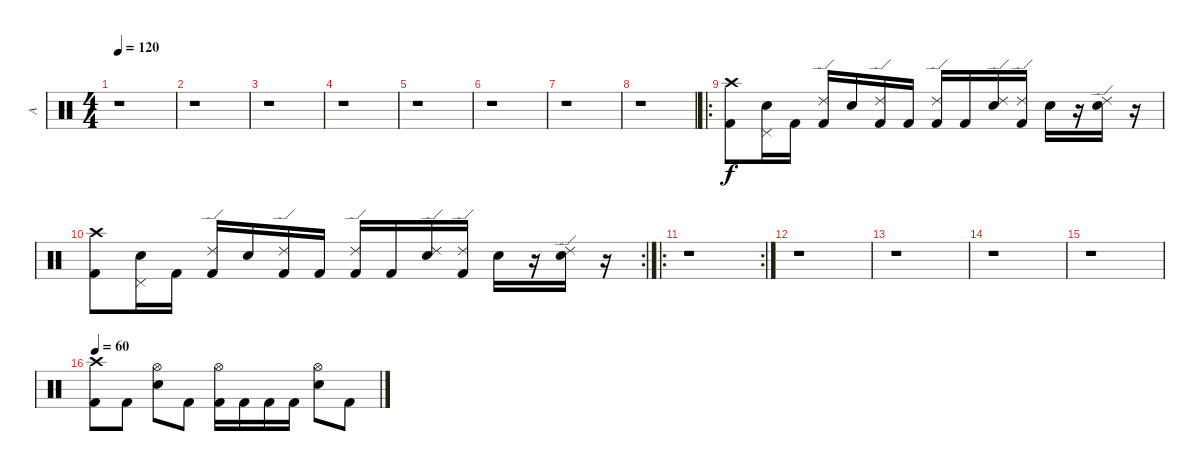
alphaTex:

\track ("A" "A") {instrument percussion}
\staff {score}
\articulation defaults
\ts (4 4)
\tempo 120
\clef neutral
\ks c
r.1{dy f} |
r.1 |
r.1 |
r.1 |
r.1 |
r.1 |
r.1 |
r.1 |
\ro
("Crash high (hit)" "Kick (hit) 2").8 ("Pedal Hi-Hat (hit)" "Electric Snare (hit)").16 "Kick (hit) 2".16 ("Ride (edge) 2" "Kick (hit) 2").16 "Electric Snare (hit)".16 ("Ride (edge) 2" "Kick (hit) 2").16 "Kick (hit) 2".16 ("Ride (edge) 2" "Kick (hit) 2").16 "Kick (hit) 2".16 ("Ride (edge) 2" "Electric Snare (hit)").16 ("Ride (edge) 2" "Kick (hit) 2").16 "Electric Snare (hit)".16 r.16 ("Ride (edge) 2" "Electric Snare (hit)").16 r.16 |
\rc 2
("Crash high (hit)" "Kick (hit) 2").8 ("Pedal Hi-Hat (hit)" "Electric Snare (hit)").16 "Kick (hit) 2".16 ("Ride (edge) 2" "Kick (hit) 2").16 "Electric Snare (hit)".16 ("Ride (edge) 2" "Kick (hit) 2").16 "Kick (hit) 2".16 ("Ride (edge) 2" "Kick (hit) 2").16 "Kick (hit) 2".16 ("Ride (edge) 2" "Electric Snare (hit)").16 ("Ride (edge) 2" "Kick (hit) 2").16 "Electric Snare (hit)".16 r.16 ("Ride (edge) 2" "Electric Snare (hit)").16 r.16 |
\ro
\rc 2
r.1 |
r.1 |
r.1 |
r.1 |
r.1 |
\tempo 60
("Crash high (hit)" "Kick (hit) 2").8 "Kick (hit) 2".8 ("Hi-Hat (open)" "Electric Snare (hit)").8 "Kick (hit) 2".8 ("Hi-Hat (open)" "Kick (hit) 2").16 "Kick (hit) 2".16 "Kick (hit) 2".16 "Kick (hit) 2".16 ("Hi-Hat (open)" "Electric Snare (hit)").8 "Kick (hit) 2".8
